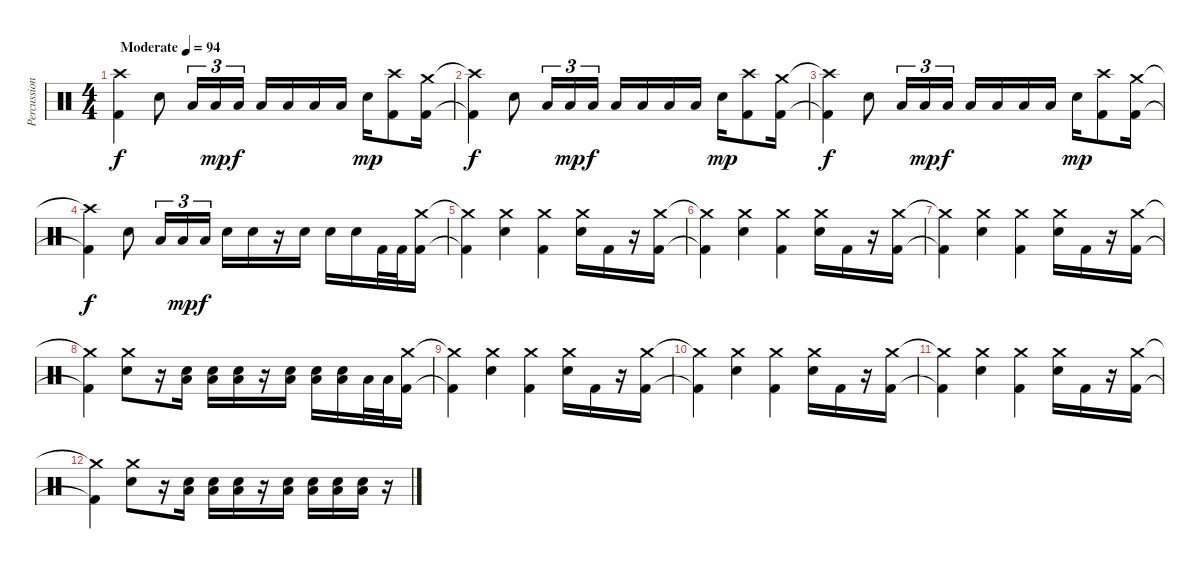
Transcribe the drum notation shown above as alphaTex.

\track ("Percussion" "Percussion") {instrument percussion}
\staff {score}
\articulation defaults
\ts (4 4)
\tempo (94 "Moderate")
\clef neutral
\ks c
("Crash high (hit)" "Kick (hit) 2").4{dy f} "Electric Snare (hit)".8 "Low Tom (hit)".16{tu (3 2)} "Low Tom (hit)".16{tu (3 2) dy mp} "Low Tom (hit)".16{tu (3 2) dy f} "Low Tom (hit)".16 "Low Tom (hit)".16 "Low Tom (hit)".16 "Low Tom (hit)".16 "Electric Snare (hit)".16{dy mp} ("Crash high (hit)" "Kick (hit) 2").8 ("Crash medium (hit)" "Kick (hit) 2").16 |
("Crash high (hit)"{t} "Kick (hit) 2"{t}).4{dy f} "Electric Snare (hit)".8 "Low Tom (hit)".16{tu (3 2)} "Low Tom (hit)".16{tu (3 2) dy mp} "Low Tom (hit)".16{tu (3 2) dy f} "Low Tom (hit)".16 "Low Tom (hit)".16 "Low Tom (hit)".16 "Low Tom (hit)".16 "Electric Snare (hit)".16{dy mp} ("Crash high (hit)" "Kick (hit) 2").8 ("Crash medium (hit)" "Kick (hit) 2").16 |
("Crash high (hit)"{t} "Kick (hit) 2"{t}).4{dy f} "Electric Snare (hit)".8 "Low Tom (hit)".16{tu (3 2)} "Low Tom (hit)".16{tu (3 2) dy mp} "Low Tom (hit)".16{tu (3 2) dy f} "Low Tom (hit)".16 "Low Tom (hit)".16 "Low Tom (hit)".16 "Low Tom (hit)".16 "Electric Snare (hit)".16{dy mp} ("Crash high (hit)" "Kick (hit) 2").8 ("Crash medium (hit)" "Kick (hit) 2").16 |
("Crash high (hit)"{t} "Kick (hit) 2"{t}).4{dy f} "Electric Snare (hit)".8 "Low Tom (hit)".16{tu (3 2)} "Low Tom (hit)".16{tu (3 2) dy mp} "Low Tom (hit)".16{tu (3 2) dy f} "Electric Snare (hit)".16 "Electric Snare (hit)".16 r.16 "Electric Snare (hit)".16 "Electric Snare (hit)".16 "Electric Snare (hit)".16 "Kick (hit) 2".32 "Kick (hit) 2".32 ("Crash medium (hit)" "Kick (hit) 2").16 |
("Crash medium (hit)"{t} "Kick (hit) 2"{t}).4 ("Crash medium (hit)" "Electric Snare (hit)").4 ("Crash medium (hit)" "Kick (hit) 2").4 ("Crash medium (hit)" "Electric Snare (hit)").16 "Kick (hit) 2".16 r.16 ("Crash medium (hit)" "Kick (hit) 2").16 |
("Crash medium (hit)"{t} "Kick (hit) 2"{t}).4 ("Crash medium (hit)" "Electric Snare (hit)").4 ("Crash medium (hit)" "Kick (hit) 2").4 ("Crash medium (hit)" "Electric Snare (hit)").16 "Kick (hit) 2".16 r.16 ("Crash medium (hit)" "Kick (hit) 2").16 |
("Crash medium (hit)"{t} "Kick (hit) 2"{t}).4 ("Crash medium (hit)" "Electric Snare (hit)").4 ("Crash medium (hit)" "Kick (hit) 2").4 ("Crash medium (hit)" "Electric Snare (hit)").16 "Kick (hit) 2".16 r.16 ("Crash medium (hit)" "Kick (hit) 2").16 |
("Crash medium (hit)"{t} "Kick (hit) 2"{t}).4 ("Crash medium (hit)" "Electric Snare (hit)").8 r.16 ("Low Tom (hit)" "Electric Snare (hit)").16 ("Low Tom (hit)" "Electric Snare (hit)").16 ("Low Tom (hit)" "Electric Snare (hit)").16 r.16 ("Low Tom (hit)" "Electric Snare (hit)").16 ("Low Tom (hit)" "Electric Snare (hit)").16 ("Low Tom (hit)" "Electric Snare (hit)").16 "Low Tom (hit)".32 "Low Tom (hit)".32 ("Crash medium (hit)" "Kick (hit) 2").16 |
("Crash medium (hit)"{t} "Kick (hit) 2"{t}).4 ("Crash medium (hit)" "Electric Snare (hit)").4 ("Crash medium (hit)" "Kick (hit) 2").4 ("Crash medium (hit)" "Electric Snare (hit)").16 "Kick (hit) 2".16 r.16 ("Crash medium (hit)" "Kick (hit) 2").16 |
("Crash medium (hit)"{t} "Kick (hit) 2"{t}).4 ("Crash medium (hit)" "Electric Snare (hit)").4 ("Crash medium (hit)" "Kick (hit) 2").4 ("Crash medium (hit)" "Electric Snare (hit)").16 "Kick (hit) 2".16 r.16 ("Crash medium (hit)" "Kick (hit) 2").16 |
("Crash medium (hit)"{t} "Kick (hit) 2"{t}).4 ("Crash medium (hit)" "Electric Snare (hit)").4 ("Crash medium (hit)" "Kick (hit) 2").4 ("Crash medium (hit)" "Electric Snare (hit)").16 "Kick (hit) 2".16 r.16 ("Crash medium (hit)" "Kick (hit) 2").16 |
("Crash medium (hit)"{t} "Kick (hit) 2"{t}).4 ("Crash medium (hit)" "Electric Snare (hit)").8 r.16 ("Low Tom (hit)" "Electric Snare (hit)").16 ("Low Tom (hit)" "Electric Snare (hit)").16 ("Low Tom (hit)" "Electric Snare (hit)").16 r.16 ("Low Tom (hit)" "Electric Snare (hit)").16 ("Low Tom (hit)" "Electric Snare (hit)").16 ("Low Tom (hit)" "Electric Snare (hit)").16 ("Low Tom (hit)" "Electric Snare (hit)").16 r.16
